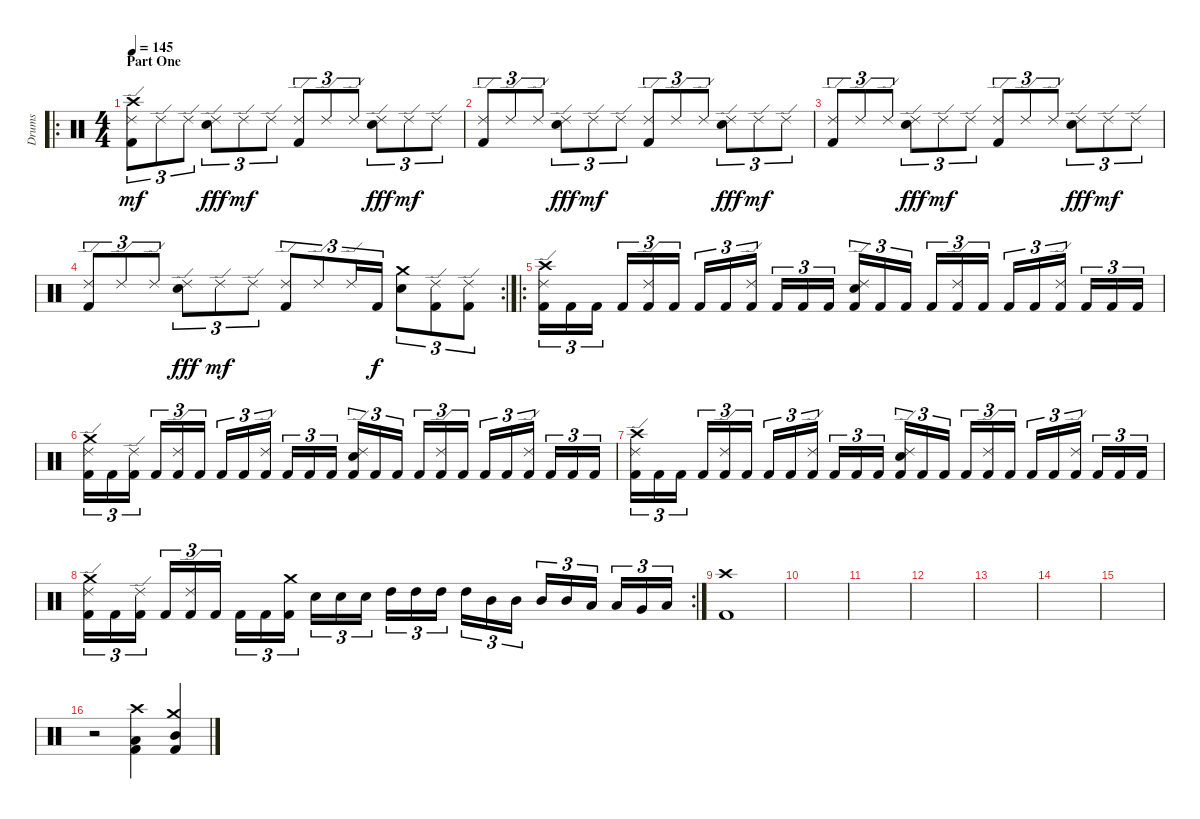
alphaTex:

\track ("Drums" "Drums") {instrument percussion}
\staff {score}
\articulation defaults
\ro
\ts (4 4)
\section ("" "Part One")
\tempo 145
\clef neutral
\ks c
("Crash high (hit)" "Ride (edge) 2" "Kick (hit) 2").8{tu (3 2) dy mf} "Ride (edge) 2".8{tu (3 2)} "Ride (edge) 2".8{tu (3 2)} ("Ride (edge) 2" "Electric Snare (hit)").8{tu (3 2) dy fff} "Ride (edge) 2".8{tu (3 2) dy mf} "Ride (edge) 2".8{tu (3 2)} ("Ride (edge) 2" "Kick (hit) 2").8{tu (3 2)} "Ride (edge) 2".8{tu (3 2)} "Ride (edge) 2".8{tu (3 2)} ("Ride (edge) 2" "Electric Snare (hit)").8{tu (3 2) dy fff} "Ride (edge) 2".8{tu (3 2) dy mf} "Ride (edge) 2".8{tu (3 2)} |
("Ride (edge) 2" "Kick (hit) 2").8{tu (3 2)} "Ride (edge) 2".8{tu (3 2)} "Ride (edge) 2".8{tu (3 2)} ("Ride (edge) 2" "Electric Snare (hit)").8{tu (3 2) dy fff} "Ride (edge) 2".8{tu (3 2) dy mf} "Ride (edge) 2".8{tu (3 2)} ("Ride (edge) 2" "Kick (hit) 2").8{tu (3 2)} "Ride (edge) 2".8{tu (3 2)} "Ride (edge) 2".8{tu (3 2)} ("Ride (edge) 2" "Electric Snare (hit)").8{tu (3 2) dy fff} "Ride (edge) 2".8{tu (3 2) dy mf} "Ride (edge) 2".8{tu (3 2)} |
("Ride (edge) 2" "Kick (hit) 2").8{tu (3 2)} "Ride (edge) 2".8{tu (3 2)} "Ride (edge) 2".8{tu (3 2)} ("Ride (edge) 2" "Electric Snare (hit)").8{tu (3 2) dy fff} "Ride (edge) 2".8{tu (3 2) dy mf} "Ride (edge) 2".8{tu (3 2)} ("Ride (edge) 2" "Kick (hit) 2").8{tu (3 2)} "Ride (edge) 2".8{tu (3 2)} "Ride (edge) 2".8{tu (3 2)} ("Ride (edge) 2" "Electric Snare (hit)").8{tu (3 2) dy fff} "Ride (edge) 2".8{tu (3 2) dy mf} "Ride (edge) 2".8{tu (3 2)} |
\rc 2
("Ride (edge) 2" "Kick (hit) 2").8{tu (3 2)} "Ride (edge) 2".8{tu (3 2)} "Ride (edge) 2".8{tu (3 2)} ("Ride (edge) 2" "Electric Snare (hit)").8{tu (3 2) dy fff} "Ride (edge) 2".8{tu (3 2) dy mf} "Ride (edge) 2".8{tu (3 2)} ("Ride (edge) 2" "Kick (hit) 2").8{tu (3 2)} "Ride (edge) 2".8{tu (3 2)} "Ride (edge) 2".16{tu (3 2)} "Kick (hit) 2".16{tu (3 2) dy f} ("Crash medium (hit)" "Electric Snare (hit)").8{tu (3 2)} ("Ride (edge) 2" "Kick (hit) 2").8{tu (3 2)} ("Ride (edge) 2" "Kick (hit) 2").8{tu (3 2)} |
\ro
("Crash high (hit)" "Ride (edge) 2" "Kick (hit) 2").16{tu (3 2)} "Kick (hit) 2".16{tu (3 2)} "Kick (hit) 2".16{tu (3 2)} "Kick (hit) 2".16{tu (3 2)} ("Ride (edge) 2" "Kick (hit) 2").16{tu (3 2)} "Kick (hit) 2".16{tu (3 2)} "Kick (hit) 2".16{tu (3 2)} "Kick (hit) 2".16{tu (3 2)} ("Ride (edge) 2" "Kick (hit) 2").16{tu (3 2)} "Kick (hit) 2".16{tu (3 2)} "Kick (hit) 2".16{tu (3 2)} "Kick (hit) 2".16{tu (3 2)} ("Ride (edge) 2" "Electric Snare (hit)" "Kick (hit) 2").16{tu (3 2)} "Kick (hit) 2".16{tu (3 2)} "Kick (hit) 2".16{tu (3 2)} "Kick (hit) 2".16{tu (3 2)} ("Ride (edge) 2" "Kick (hit) 2").16{tu (3 2)} "Kick (hit) 2".16{tu (3 2)} "Kick (hit) 2".16{tu (3 2)} "Kick (hit) 2".16{tu (3 2)} ("Ride (edge) 2" "Kick (hit) 2").16{tu (3 2)} "Kick (hit) 2".16{tu (3 2)} "Kick (hit) 2".16{tu (3 2)} "Kick (hit) 2".16{tu (3 2)} |
("Crash medium (hit)" "Ride (edge) 2" "Kick (hit) 2").16{tu (3 2)} "Kick (hit) 2".16{tu (3 2)} ("Ride (edge) 2" "Kick (hit) 2").16{tu (3 2)} "Kick (hit) 2".16{tu (3 2)} ("Ride (edge) 2" "Kick (hit) 2").16{tu (3 2)} "Kick (hit) 2".16{tu (3 2)} "Kick (hit) 2".16{tu (3 2)} "Kick (hit) 2".16{tu (3 2)} ("Ride (edge) 2" "Kick (hit) 2").16{tu (3 2)} "Kick (hit) 2".16{tu (3 2)} "Kick (hit) 2".16{tu (3 2)} "Kick (hit) 2".16{tu (3 2)} ("Ride (edge) 2" "Electric Snare (hit)" "Kick (hit) 2").16{tu (3 2)} "Kick (hit) 2".16{tu (3 2)} "Kick (hit) 2".16{tu (3 2)} "Kick (hit) 2".16{tu (3 2)} ("Ride (edge) 2" "Kick (hit) 2").16{tu (3 2)} "Kick (hit) 2".16{tu (3 2)} "Kick (hit) 2".16{tu (3 2)} "Kick (hit) 2".16{tu (3 2)} ("Ride (edge) 2" "Kick (hit) 2").16{tu (3 2)} "Kick (hit) 2".16{tu (3 2)} "Kick (hit) 2".16{tu (3 2)} "Kick (hit) 2".16{tu (3 2)} |
("Crash high (hit)" "Ride (edge) 2" "Kick (hit) 2").16{tu (3 2)} "Kick (hit) 2".16{tu (3 2)} "Kick (hit) 2".16{tu (3 2)} "Kick (hit) 2".16{tu (3 2)} ("Ride (edge) 2" "Kick (hit) 2").16{tu (3 2)} "Kick (hit) 2".16{tu (3 2)} "Kick (hit) 2".16{tu (3 2)} "Kick (hit) 2".16{tu (3 2)} ("Ride (edge) 2" "Kick (hit) 2").16{tu (3 2)} "Kick (hit) 2".16{tu (3 2)} "Kick (hit) 2".16{tu (3 2)} "Kick (hit) 2".16{tu (3 2)} ("Ride (edge) 2" "Electric Snare (hit)" "Kick (hit) 2").16{tu (3 2)} "Kick (hit) 2".16{tu (3 2)} "Kick (hit) 2".16{tu (3 2)} "Kick (hit) 2".16{tu (3 2)} ("Ride (edge) 2" "Kick (hit) 2").16{tu (3 2)} "Kick (hit) 2".16{tu (3 2)} "Kick (hit) 2".16{tu (3 2)} "Kick (hit) 2".16{tu (3 2)} ("Ride (edge) 2" "Kick (hit) 2").16{tu (3 2)} "Kick (hit) 2".16{tu (3 2)} "Kick (hit) 2".16{tu (3 2)} "Kick (hit) 2".16{tu (3 2)} |
\rc 2
("Crash medium (hit)" "Ride (edge) 2" "Kick (hit) 2").16{tu (3 2)} "Kick (hit) 2".16{tu (3 2)} ("Ride (edge) 2" "Kick (hit) 2").16{tu (3 2)} "Kick (hit) 2".16{tu (3 2)} ("Ride (edge) 2" "Kick (hit) 2").16{tu (3 2)} "Kick (hit) 2".16{tu (3 2)} "Kick (hit) 2".16{tu (3 2)} "Kick (hit) 2".16{tu (3 2)} ("Crash medium (hit)" "Kick (hit) 2").16{tu (3 2)} "Electric Snare (hit)".16{tu (3 2)} "Electric Snare (hit)".16{tu (3 2)} "Electric Snare (hit)".16{tu (3 2)} "High Tom (hit)".16{tu (3 2)} "High Tom (hit)".16{tu (3 2)} "High Tom (hit)".16{tu (3 2)} "High Tom (hit)".16{tu (3 2)} "Mid Tom (hit)".16{tu (3 2)} "Mid Tom (hit)".16{tu (3 2)} "Mid Tom (hit)".16{tu (3 2)} "Mid Tom (hit)".16{tu (3 2)} "Low Tom (hit)".16{tu (3 2)} "Low Tom (hit)".16{tu (3 2)} "Very Low Tom (hit)".16{tu (3 2)} "Low Floor Tom (hit)".16{tu (3 2)} |
("Crash high (hit)" "Kick (hit) 2").1 |
|
|
|
|
|
|
r.2 ("Low Tom (hit)" "Kick (hit) 2" "Crash high (hit)").4 ("Mid Tom (hit)" "Kick (hit) 2" "Crash medium (hit)").4
